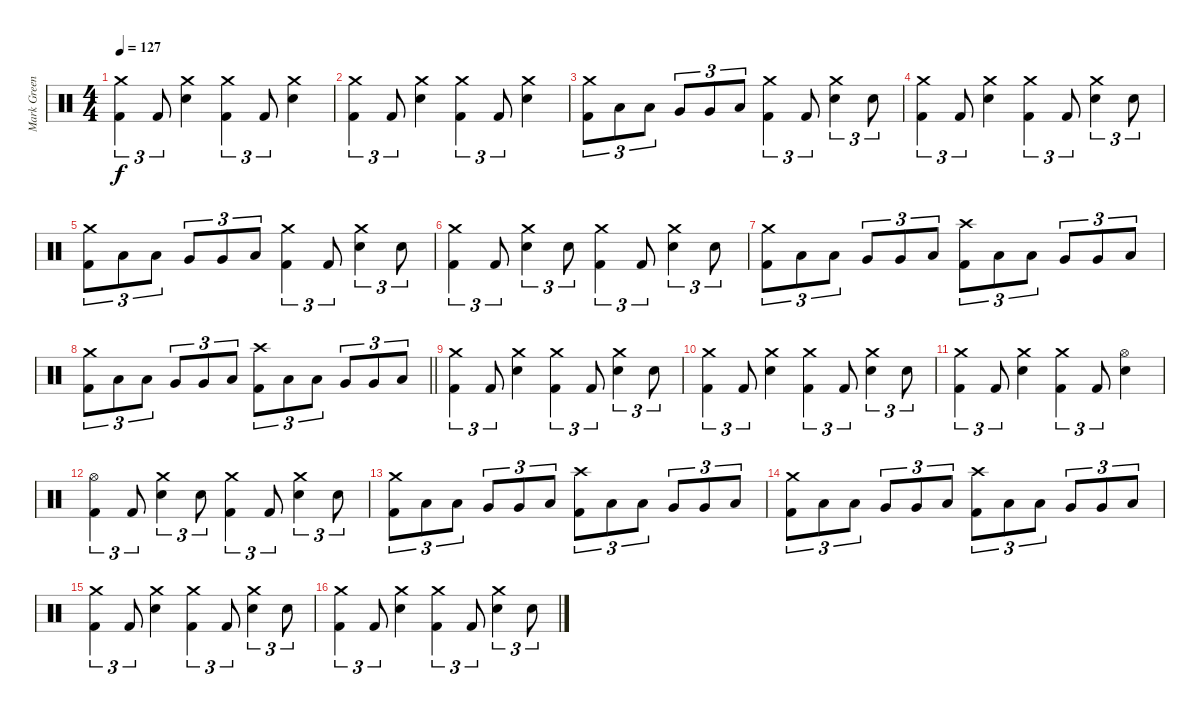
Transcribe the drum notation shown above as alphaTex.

\track ("Mark Greening" "Mark Green") {instrument percussion}
\staff {score}
\articulation defaults
\ts (4 4)
\section ("" "")
\tempo 127
\clef neutral
\ks c
("Crash medium (hit)" "Kick (hit) 2").4{tu (3 2) dy f} "Kick (hit) 2".8{tu (3 2)} ("Crash medium (hit)" "Electric Snare (hit)").4 ("Crash medium (hit)" "Kick (hit) 2").4{tu (3 2)} "Kick (hit) 2".8{tu (3 2)} ("Crash medium (hit)" "Electric Snare (hit)").4 |
("Crash medium (hit)" "Kick (hit) 2").4{tu (3 2)} "Kick (hit) 2".8{tu (3 2)} ("Crash medium (hit)" "Electric Snare (hit)").4 ("Crash medium (hit)" "Kick (hit) 2").4{tu (3 2)} "Kick (hit) 2".8{tu (3 2)} ("Crash medium (hit)" "Electric Snare (hit)").4 |
("Crash medium (hit)" "Kick (hit) 2").8{tu (3 2)} "Low Tom (hit)".8{tu (3 2)} "Low Tom (hit)".8{tu (3 2)} "Very Low Tom (hit)".8{tu (3 2)} "Very Low Tom (hit)".8{tu (3 2)} "Low Floor Tom (hit)".8{tu (3 2)} ("Crash medium (hit)" "Kick (hit) 2").4{tu (3 2)} "Kick (hit) 2".8{tu (3 2)} ("Crash medium (hit)" "Electric Snare (hit)").4{tu (3 2)} "Electric Snare (hit)".8{tu (3 2)} |
("Crash medium (hit)" "Kick (hit) 2").4{tu (3 2)} "Kick (hit) 2".8{tu (3 2)} ("Crash medium (hit)" "Electric Snare (hit)").4 ("Crash medium (hit)" "Kick (hit) 2").4{tu (3 2)} "Kick (hit) 2".8{tu (3 2)} ("Crash medium (hit)" "Electric Snare (hit)").4{tu (3 2)} "Electric Snare (hit)".8{tu (3 2)} |
("Crash medium (hit)" "Kick (hit) 2").8{tu (3 2)} "Low Tom (hit)".8{tu (3 2)} "Low Tom (hit)".8{tu (3 2)} "Very Low Tom (hit)".8{tu (3 2)} "Very Low Tom (hit)".8{tu (3 2)} "Low Floor Tom (hit)".8{tu (3 2)} ("Crash medium (hit)" "Kick (hit) 2").4{tu (3 2)} "Kick (hit) 2".8{tu (3 2)} ("Crash medium (hit)" "Electric Snare (hit)").4{tu (3 2)} "Electric Snare (hit)".8{tu (3 2)} |
("Crash medium (hit)" "Kick (hit) 2").4{tu (3 2)} "Kick (hit) 2".8{tu (3 2)} ("Crash medium (hit)" "Electric Snare (hit)").4{tu (3 2)} "Electric Snare (hit)".8{tu (3 2)} ("Crash medium (hit)" "Kick (hit) 2").4{tu (3 2)} "Kick (hit) 2".8{tu (3 2)} ("Crash medium (hit)" "Electric Snare (hit)").4{tu (3 2)} "Electric Snare (hit)".8{tu (3 2)} |
("Crash medium (hit)" "Kick (hit) 2").8{tu (3 2)} "Low Tom (hit)".8{tu (3 2)} "Low Tom (hit)".8{tu (3 2)} "Very Low Tom (hit)".8{tu (3 2)} "Very Low Tom (hit)".8{tu (3 2)} "Low Floor Tom (hit)".8{tu (3 2)} ("Crash high (hit)" "Kick (hit) 2").8{tu (3 2)} "Low Tom (hit)".8{tu (3 2)} "Low Tom (hit)".8{tu (3 2)} "Very Low Tom (hit)".8{tu (3 2)} "Very Low Tom (hit)".8{tu (3 2)} "Low Floor Tom (hit)".8{tu (3 2)} |
\barLineRight lightlight
("Crash medium (hit)" "Kick (hit) 2").8{tu (3 2)} "Low Tom (hit)".8{tu (3 2)} "Low Tom (hit)".8{tu (3 2)} "Very Low Tom (hit)".8{tu (3 2)} "Very Low Tom (hit)".8{tu (3 2)} "Low Floor Tom (hit)".8{tu (3 2)} ("Crash high (hit)" "Kick (hit) 2").8{tu (3 2)} "Low Tom (hit)".8{tu (3 2)} "Low Tom (hit)".8{tu (3 2)} "Very Low Tom (hit)".8{tu (3 2)} "Very Low Tom (hit)".8{tu (3 2)} "Low Floor Tom (hit)".8{tu (3 2)} |
("Crash medium (hit)" "Kick (hit) 2").4{tu (3 2)} "Kick (hit) 2".8{tu (3 2)} ("Crash medium (hit)" "Electric Snare (hit)").4 ("Crash medium (hit)" "Kick (hit) 2").4{tu (3 2)} "Kick (hit) 2".8{tu (3 2)} ("Crash medium (hit)" "Electric Snare (hit)").4{tu (3 2)} "Electric Snare (hit)".8{tu (3 2)} |
("Crash medium (hit)" "Kick (hit) 2").4{tu (3 2)} "Kick (hit) 2".8{tu (3 2)} ("Crash medium (hit)" "Electric Snare (hit)").4 ("Crash medium (hit)" "Kick (hit) 2").4{tu (3 2)} "Kick (hit) 2".8{tu (3 2)} ("Crash medium (hit)" "Electric Snare (hit)").4{tu (3 2)} "Electric Snare (hit)".8{tu (3 2)} |
("Crash medium (hit)" "Kick (hit) 2").4{tu (3 2)} "Kick (hit) 2".8{tu (3 2)} ("Crash medium (hit)" "Electric Snare (hit)").4 ("Crash medium (hit)" "Kick (hit) 2").4{tu (3 2)} "Kick (hit) 2".8{tu (3 2)} ("Hi-Hat (open)" "Electric Snare (hit)").4 |
("Hi-Hat (open)" "Kick (hit) 2").4{tu (3 2)} "Kick (hit) 2".8{tu (3 2)} ("Crash medium (hit)" "Electric Snare (hit)").4{tu (3 2)} "Electric Snare (hit)".8{tu (3 2)} ("Crash medium (hit)" "Kick (hit) 2").4{tu (3 2)} "Kick (hit) 2".8{tu (3 2)} ("Crash medium (hit)" "Electric Snare (hit)").4{tu (3 2)} "Electric Snare (hit)".8{tu (3 2)} |
("Crash medium (hit)" "Kick (hit) 2").8{tu (3 2)} "Low Tom (hit)".8{tu (3 2)} "Low Tom (hit)".8{tu (3 2)} "Very Low Tom (hit)".8{tu (3 2)} "Very Low Tom (hit)".8{tu (3 2)} "Low Floor Tom (hit)".8{tu (3 2)} ("Crash high (hit)" "Kick (hit) 2").8{tu (3 2)} "Low Tom (hit)".8{tu (3 2)} "Low Tom (hit)".8{tu (3 2)} "Very Low Tom (hit)".8{tu (3 2)} "Very Low Tom (hit)".8{tu (3 2)} "Low Floor Tom (hit)".8{tu (3 2)} |
("Crash medium (hit)" "Kick (hit) 2").8{tu (3 2)} "Low Tom (hit)".8{tu (3 2)} "Low Tom (hit)".8{tu (3 2)} "Very Low Tom (hit)".8{tu (3 2)} "Very Low Tom (hit)".8{tu (3 2)} "Low Floor Tom (hit)".8{tu (3 2)} ("Crash high (hit)" "Kick (hit) 2").8{tu (3 2)} "Low Tom (hit)".8{tu (3 2)} "Low Tom (hit)".8{tu (3 2)} "Very Low Tom (hit)".8{tu (3 2)} "Very Low Tom (hit)".8{tu (3 2)} "Low Floor Tom (hit)".8{tu (3 2)} |
("Crash medium (hit)" "Kick (hit) 2").4{tu (3 2)} "Kick (hit) 2".8{tu (3 2)} ("Crash medium (hit)" "Electric Snare (hit)").4 ("Crash medium (hit)" "Kick (hit) 2").4{tu (3 2)} "Kick (hit) 2".8{tu (3 2)} ("Crash medium (hit)" "Electric Snare (hit)").4{tu (3 2)} "Electric Snare (hit)".8{tu (3 2)} |
("Crash medium (hit)" "Kick (hit) 2").4{tu (3 2)} "Kick (hit) 2".8{tu (3 2)} ("Crash medium (hit)" "Electric Snare (hit)").4 ("Crash medium (hit)" "Kick (hit) 2").4{tu (3 2)} "Kick (hit) 2".8{tu (3 2)} ("Crash medium (hit)" "Electric Snare (hit)").4{tu (3 2)} "Electric Snare (hit)".8{tu (3 2)}
